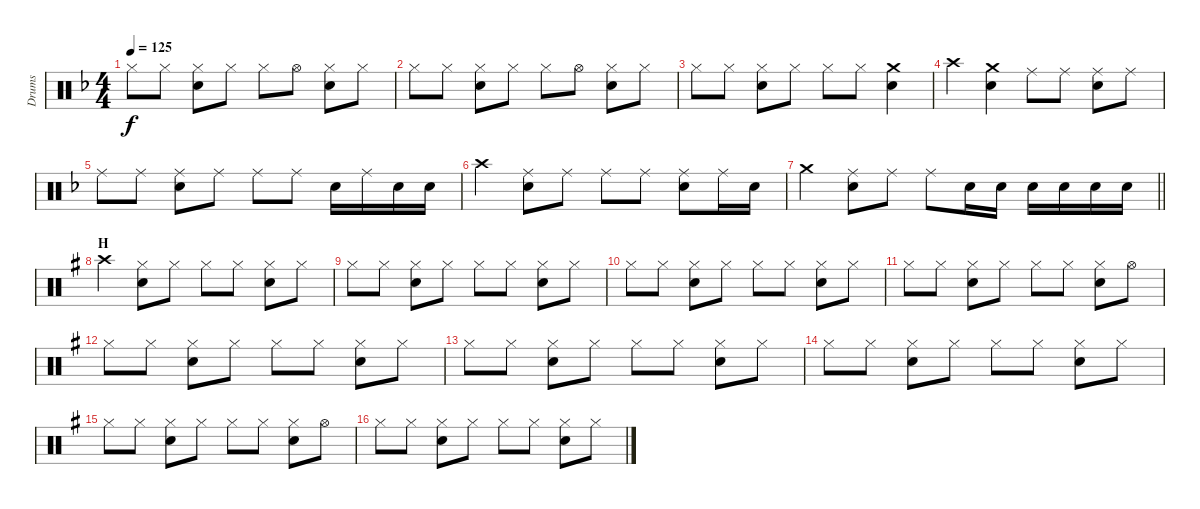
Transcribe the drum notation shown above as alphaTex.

\track ("Drums" "Drums") {instrument percussion}
\staff {score}
\articulation defaults
\ts (4 4)
\tempo 125
\clef neutral
\ks f "Hi-Hat (closed)".8{dy f} "Hi-Hat (closed)".8
("Hi-Hat (closed)" "Snare (hit) 2").8 "Hi-Hat (closed)".8 "Hi-Hat (closed)".8 "Hi-Hat (open)".8 ("Hi-Hat (closed)" "Snare (hit) 2").8 "Hi-Hat (closed)".8 |
"Hi-Hat (closed)".8 "Hi-Hat (closed)".8 ("Hi-Hat (closed)" "Snare (hit) 2").8 "Hi-Hat (closed)".8 "Hi-Hat (closed)".8 "Hi-Hat (open)".8 ("Hi-Hat (closed)" "Snare (hit) 2").8 "Hi-Hat (closed)".8 |
"Hi-Hat (closed)".8 "Hi-Hat (closed)".8 ("Hi-Hat (closed)" "Snare (hit) 2").8 "Hi-Hat (closed)".8 "Hi-Hat (closed)".8 "Hi-Hat (closed)".8 ("Crash medium (hit)" "Snare (hit) 2").4 |
"Crash high (hit)".4 ("Crash medium (hit)" "Snare (hit) 2").4 "Ride (middle)".8 "Ride (middle)".8 ("Ride (middle)" "Snare (hit) 2").8 "Ride (middle)".8 |
"Ride (middle)".8 "Ride (middle)".8 ("Ride (middle)" "Snare (hit) 2").8 "Ride (middle)".8 "Ride (middle)".8 "Ride (middle)".8 "Snare (hit) 2".16 "Ride (middle)".16 "Snare (hit) 2".16 "Snare (hit) 2".16 |
"Crash high (hit)".4 ("Ride (middle)" "Snare (hit) 2").8 "Ride (middle)".8 "Ride (middle)".8 "Ride (middle)".8 ("Ride (middle)" "Snare (hit) 2").8 "Ride (middle)".16 "Snare (hit) 2".16 |
\barLineRight lightlight "Crash medium (hit)".4
("Ride (middle)" "Snare (hit) 2").8 "Ride (middle)".8 "Ride (middle)".8 "Snare (hit) 2".16 "Snare (hit) 2".16 "Snare (hit) 2".16 "Snare (hit) 2".16 "Snare (hit) 2".16 "Snare (hit) 2".16 |
\section ("" "H")
\ks g "Crash high (hit)".4
("Hi-Hat (closed)" "Snare (hit) 2").8 "Hi-Hat (closed)".8 "Hi-Hat (closed)".8 "Hi-Hat (closed)".8 ("Hi-Hat (closed)" "Snare (hit) 2").8 "Hi-Hat (closed)".8 |
"Hi-Hat (closed)".8 "Hi-Hat (closed)".8 ("Hi-Hat (closed)" "Snare (hit) 2").8 "Hi-Hat (closed)".8 "Hi-Hat (closed)".8 "Hi-Hat (closed)".8 ("Hi-Hat (closed)" "Snare (hit) 2").8 "Hi-Hat (closed)".8 |
"Hi-Hat (closed)".8 "Hi-Hat (closed)".8 ("Hi-Hat (closed)" "Snare (hit) 2").8 "Hi-Hat (closed)".8 "Hi-Hat (closed)".8 "Hi-Hat (closed)".8 ("Hi-Hat (closed)" "Snare (hit) 2").8 "Hi-Hat (closed)".8 |
"Hi-Hat (closed)".8 "Hi-Hat (closed)".8 ("Hi-Hat (closed)" "Snare (hit) 2").8 "Hi-Hat (closed)".8 "Hi-Hat (closed)".8 "Hi-Hat (closed)".8 ("Hi-Hat (closed)" "Snare (hit) 2").8 "Hi-Hat (open)".8 |
"Hi-Hat (closed)".8 "Hi-Hat (closed)".8 ("Hi-Hat (closed)" "Snare (hit) 2").8 "Hi-Hat (closed)".8 "Hi-Hat (closed)".8 "Hi-Hat (closed)".8 ("Hi-Hat (closed)" "Snare (hit) 2").8 "Hi-Hat (closed)".8 |
"Hi-Hat (closed)".8 "Hi-Hat (closed)".8 ("Hi-Hat (closed)" "Snare (hit) 2").8 "Hi-Hat (closed)".8 "Hi-Hat (closed)".8 "Hi-Hat (closed)".8 ("Hi-Hat (closed)" "Snare (hit) 2").8 "Hi-Hat (closed)".8 |
"Hi-Hat (closed)".8 "Hi-Hat (closed)".8 ("Hi-Hat (closed)" "Snare (hit) 2").8 "Hi-Hat (closed)".8 "Hi-Hat (closed)".8 "Hi-Hat (closed)".8 ("Hi-Hat (closed)" "Snare (hit) 2").8 "Hi-Hat (closed)".8 |
"Hi-Hat (closed)".8 "Hi-Hat (closed)".8 ("Hi-Hat (closed)" "Snare (hit) 2").8 "Hi-Hat (closed)".8 "Hi-Hat (closed)".8 "Hi-Hat (closed)".8 ("Hi-Hat (closed)" "Snare (hit) 2").8 "Hi-Hat (open)".8 |
"Hi-Hat (closed)".8 "Hi-Hat (closed)".8 ("Hi-Hat (closed)" "Snare (hit) 2").8 "Hi-Hat (closed)".8 "Hi-Hat (closed)".8 "Hi-Hat (closed)".8 ("Hi-Hat (closed)" "Snare (hit) 2").8 "Hi-Hat (closed)".8
